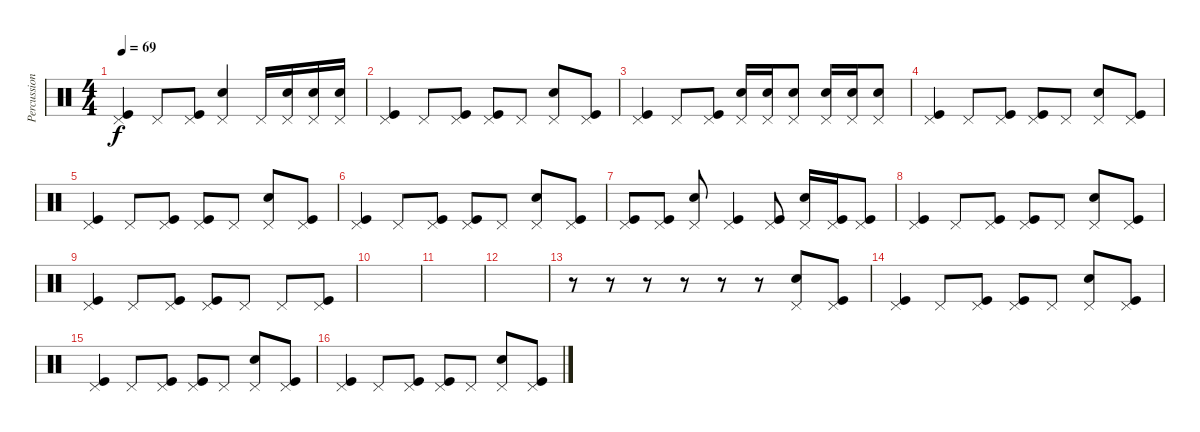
\track ("Percussion" "Percussion") {instrument percussion}
\staff {score}
\articulation defaults
\ts (4 4)
\tempo 69
\clef neutral
\ks c
("Pedal Hi-Hat (hit)" "Kick (hit)").4{dy f} "Pedal Hi-Hat (hit)".8 ("Pedal Hi-Hat (hit)" "Kick (hit)").8 ("Pedal Hi-Hat (hit)" "Snare (hit) 2").4 "Pedal Hi-Hat (hit)".16 ("Pedal Hi-Hat (hit)" "Snare (hit) 2").16 ("Pedal Hi-Hat (hit)" "Snare (hit) 2").16 ("Pedal Hi-Hat (hit)" "Snare (hit) 2").16 |
("Pedal Hi-Hat (hit)" "Kick (hit)").4 "Pedal Hi-Hat (hit)".8 ("Pedal Hi-Hat (hit)" "Kick (hit)").8 ("Pedal Hi-Hat (hit)" "Kick (hit)").8 "Pedal Hi-Hat (hit)".8 ("Pedal Hi-Hat (hit)" "Snare (hit) 2").8 ("Pedal Hi-Hat (hit)" "Kick (hit)").8 |
("Pedal Hi-Hat (hit)" "Kick (hit)").4 "Pedal Hi-Hat (hit)".8 ("Pedal Hi-Hat (hit)" "Kick (hit)").8 ("Pedal Hi-Hat (hit)" "Snare (hit) 2").16 ("Pedal Hi-Hat (hit)" "Snare (hit) 2").16 ("Pedal Hi-Hat (hit)" "Snare (hit) 2").8 ("Pedal Hi-Hat (hit)" "Snare (hit) 2").16 ("Pedal Hi-Hat (hit)" "Snare (hit) 2").16 ("Pedal Hi-Hat (hit)" "Snare (hit) 2").8 |
("Pedal Hi-Hat (hit)" "Kick (hit)").4 "Pedal Hi-Hat (hit)".8 ("Pedal Hi-Hat (hit)" "Kick (hit)").8 ("Pedal Hi-Hat (hit)" "Kick (hit)").8 "Pedal Hi-Hat (hit)".8 ("Pedal Hi-Hat (hit)" "Snare (hit) 2").8 ("Pedal Hi-Hat (hit)" "Kick (hit)").8 |
("Pedal Hi-Hat (hit)" "Kick (hit)").4 "Pedal Hi-Hat (hit)".8 ("Pedal Hi-Hat (hit)" "Kick (hit)").8 ("Pedal Hi-Hat (hit)" "Kick (hit)").8 "Pedal Hi-Hat (hit)".8 ("Pedal Hi-Hat (hit)" "Snare (hit) 2").8 ("Pedal Hi-Hat (hit)" "Kick (hit)").8 |
("Pedal Hi-Hat (hit)" "Kick (hit)").4 "Pedal Hi-Hat (hit)".8 ("Pedal Hi-Hat (hit)" "Kick (hit)").8 ("Pedal Hi-Hat (hit)" "Kick (hit)").8 "Pedal Hi-Hat (hit)".8 ("Pedal Hi-Hat (hit)" "Snare (hit) 2").8 ("Pedal Hi-Hat (hit)" "Kick (hit)").8 |
("Pedal Hi-Hat (hit)" "Kick (hit)").8 ("Pedal Hi-Hat (hit)" "Kick (hit)").8 ("Pedal Hi-Hat (hit)" "Snare (hit) 2").8 ("Pedal Hi-Hat (hit)" "Kick (hit)").4 ("Pedal Hi-Hat (hit)" "Kick (hit)").8 ("Pedal Hi-Hat (hit)" "Snare (hit) 2").16 ("Pedal Hi-Hat (hit)" "Kick (hit)").16 ("Pedal Hi-Hat (hit)" "Kick (hit)").8 |
("Pedal Hi-Hat (hit)" "Kick (hit)").4 "Pedal Hi-Hat (hit)".8 ("Pedal Hi-Hat (hit)" "Kick (hit)").8 ("Pedal Hi-Hat (hit)" "Kick (hit)").8 "Pedal Hi-Hat (hit)".8 ("Pedal Hi-Hat (hit)" "Snare (hit) 2").8 ("Pedal Hi-Hat (hit)" "Kick (hit)").8 |
("Pedal Hi-Hat (hit)" "Kick (hit)").4 "Pedal Hi-Hat (hit)".8 ("Pedal Hi-Hat (hit)" "Kick (hit)").8 ("Pedal Hi-Hat (hit)" "Kick (hit)").8 "Pedal Hi-Hat (hit)".8 "Pedal Hi-Hat (hit)".8 ("Pedal Hi-Hat (hit)" "Kick (hit)").8 |
|
|
|
r.8 r.8 r.8 r.8 r.8 r.8 ("Pedal Hi-Hat (hit)" "Snare (hit) 2").8 ("Pedal Hi-Hat (hit)" "Kick (hit)").8 |
("Pedal Hi-Hat (hit)" "Kick (hit)").4 "Pedal Hi-Hat (hit)".8 ("Pedal Hi-Hat (hit)" "Kick (hit)").8 ("Pedal Hi-Hat (hit)" "Kick (hit)").8 "Pedal Hi-Hat (hit)".8 ("Pedal Hi-Hat (hit)" "Snare (hit) 2").8 ("Pedal Hi-Hat (hit)" "Kick (hit)").8 |
("Pedal Hi-Hat (hit)" "Kick (hit)").4 "Pedal Hi-Hat (hit)".8 ("Pedal Hi-Hat (hit)" "Kick (hit)").8 ("Pedal Hi-Hat (hit)" "Kick (hit)").8 "Pedal Hi-Hat (hit)".8 ("Pedal Hi-Hat (hit)" "Snare (hit) 2").8 ("Pedal Hi-Hat (hit)" "Kick (hit)").8 |
("Pedal Hi-Hat (hit)" "Kick (hit)").4 "Pedal Hi-Hat (hit)".8 ("Pedal Hi-Hat (hit)" "Kick (hit)").8 ("Pedal Hi-Hat (hit)" "Kick (hit)").8 "Pedal Hi-Hat (hit)".8 ("Pedal Hi-Hat (hit)" "Snare (hit) 2").8 ("Pedal Hi-Hat (hit)" "Kick (hit)").8
